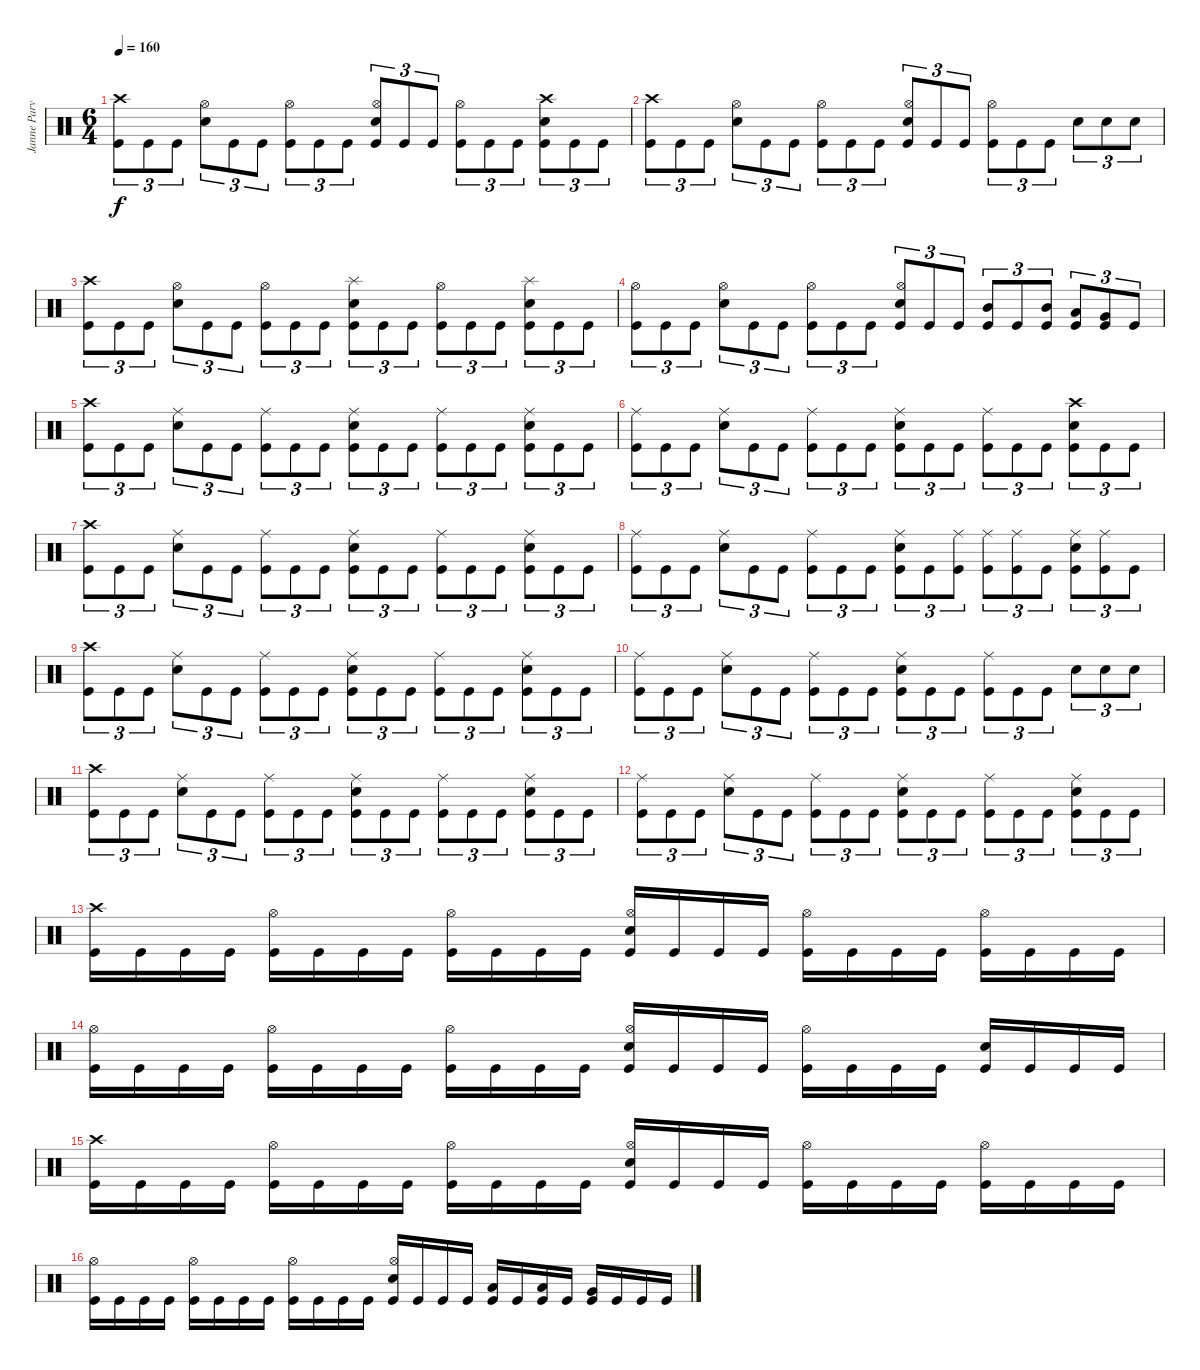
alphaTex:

\track ("Janne Parviainen" "Janne Parv") {instrument percussion}
\staff {score}
\articulation defaults
\ts (6 4)
\tempo 160
\clef neutral
\ks c
("Crash high (hit)" "Kick (hit)").8{tu (3 2) dy f} "Kick (hit)".8{tu (3 2)} "Kick (hit)".8{tu (3 2)} ("Hi-Hat (open)" "Electric Snare (hit)").8{tu (3 2)} "Kick (hit)".8{tu (3 2)} "Kick (hit)".8{tu (3 2)} ("Hi-Hat (open)" "Kick (hit)").8{tu (3 2)} "Kick (hit)".8{tu (3 2)} "Kick (hit)".8{tu (3 2)} ("Hi-Hat (open)" "Electric Snare (hit)" "Kick (hit)").8{tu (3 2)} "Kick (hit)".8{tu (3 2)} "Kick (hit)".8{tu (3 2)} ("Hi-Hat (open)" "Kick (hit)").8{tu (3 2)} "Kick (hit)".8{tu (3 2)} "Kick (hit)".8{tu (3 2)} ("Crash high (hit)" "Electric Snare (hit)" "Kick (hit)").8{tu (3 2)} "Kick (hit)".8{tu (3 2)} "Kick (hit)".8{tu (3 2)} |
("Crash high (hit)" "Kick (hit)").8{tu (3 2)} "Kick (hit)".8{tu (3 2)} "Kick (hit)".8{tu (3 2)} ("Hi-Hat (open)" "Electric Snare (hit)").8{tu (3 2)} "Kick (hit)".8{tu (3 2)} "Kick (hit)".8{tu (3 2)} ("Hi-Hat (open)" "Kick (hit)").8{tu (3 2)} "Kick (hit)".8{tu (3 2)} "Kick (hit)".8{tu (3 2)} ("Hi-Hat (open)" "Electric Snare (hit)" "Kick (hit)").8{tu (3 2)} "Kick (hit)".8{tu (3 2)} "Kick (hit)".8{tu (3 2)} ("Hi-Hat (open)" "Kick (hit)").8{tu (3 2)} "Kick (hit)".8{tu (3 2)} "Kick (hit)".8{tu (3 2)} "Electric Snare (hit)".8{tu (3 2)} "Electric Snare (hit)".8{tu (3 2)} "Electric Snare (hit)".8{tu (3 2)} |
("Crash high (hit)" "Kick (hit)").8{tu (3 2)} "Kick (hit)".8{tu (3 2)} "Kick (hit)".8{tu (3 2)} ("Hi-Hat (open)" "Electric Snare (hit)").8{tu (3 2)} "Kick (hit)".8{tu (3 2)} "Kick (hit)".8{tu (3 2)} ("Hi-Hat (open)" "Kick (hit)").8{tu (3 2)} "Kick (hit)".8{tu (3 2)} "Kick (hit)".8{tu (3 2)} ("Splash (hit)" "Electric Snare (hit)" "Kick (hit)").8{tu (3 2)} "Kick (hit)".8{tu (3 2)} "Kick (hit)".8{tu (3 2)} ("Hi-Hat (open)" "Kick (hit)").8{tu (3 2)} "Kick (hit)".8{tu (3 2)} "Kick (hit)".8{tu (3 2)} ("Splash (hit)" "Electric Snare (hit)" "Kick (hit)").8{tu (3 2)} "Kick (hit)".8{tu (3 2)} "Kick (hit)".8{tu (3 2)} |
("Hi-Hat (open)" "Kick (hit)").8{tu (3 2)} "Kick (hit)".8{tu (3 2)} "Kick (hit)".8{tu (3 2)} ("Hi-Hat (open)" "Electric Snare (hit)").8{tu (3 2)} "Kick (hit)".8{tu (3 2)} "Kick (hit)".8{tu (3 2)} ("Hi-Hat (open)" "Kick (hit)").8{tu (3 2)} "Kick (hit)".8{tu (3 2)} "Kick (hit)".8{tu (3 2)} ("Hi-Hat (open)" "Electric Snare (hit)" "Kick (hit)").8{tu (3 2)} "Kick (hit)".8{tu (3 2)} "Kick (hit)".8{tu (3 2)} ("Mid Tom (hit)" "Kick (hit)").8{tu (3 2)} "Kick (hit)".8{tu (3 2)} ("Mid Tom (hit)" "Kick (hit)").8{tu (3 2)} ("Low Tom (hit)" "Kick (hit)").8{tu (3 2)} ("Very Low Tom (hit)" "Kick (hit)").8{tu (3 2)} "Kick (hit)".8{tu (3 2)} |
("Crash high (hit)" "Kick (hit)").8{tu (3 2)} "Kick (hit)".8{tu (3 2)} "Kick (hit)".8{tu (3 2)} ("Ride (middle)" "Electric Snare (hit)").8{tu (3 2)} "Kick (hit)".8{tu (3 2)} "Kick (hit)".8{tu (3 2)} ("Ride (middle)" "Kick (hit)").8{tu (3 2)} "Kick (hit)".8{tu (3 2)} "Kick (hit)".8{tu (3 2)} ("Ride (middle)" "Electric Snare (hit)" "Kick (hit)").8{tu (3 2)} "Kick (hit)".8{tu (3 2)} "Kick (hit)".8{tu (3 2)} ("Ride (middle)" "Kick (hit)").8{tu (3 2)} "Kick (hit)".8{tu (3 2)} "Kick (hit)".8{tu (3 2)} ("Ride (middle)" "Electric Snare (hit)" "Kick (hit)").8{tu (3 2)} "Kick (hit)".8{tu (3 2)} "Kick (hit)".8{tu (3 2)} |
("Ride (middle)" "Kick (hit)").8{tu (3 2)} "Kick (hit)".8{tu (3 2)} "Kick (hit)".8{tu (3 2)} ("Ride (middle)" "Electric Snare (hit)").8{tu (3 2)} "Kick (hit)".8{tu (3 2)} "Kick (hit)".8{tu (3 2)} ("Ride (middle)" "Kick (hit)").8{tu (3 2)} "Kick (hit)".8{tu (3 2)} "Kick (hit)".8{tu (3 2)} ("Ride (middle)" "Electric Snare (hit)" "Kick (hit)").8{tu (3 2)} "Kick (hit)".8{tu (3 2)} "Kick (hit)".8{tu (3 2)} ("Ride (middle)" "Kick (hit)").8{tu (3 2)} "Kick (hit)".8{tu (3 2)} "Kick (hit)".8{tu (3 2)} ("Crash high (hit)" "Electric Snare (hit)" "Kick (hit)").8{tu (3 2)} "Kick (hit)".8{tu (3 2)} "Kick (hit)".8{tu (3 2)} |
("Crash high (hit)" "Kick (hit)").8{tu (3 2)} "Kick (hit)".8{tu (3 2)} "Kick (hit)".8{tu (3 2)} ("Ride (middle)" "Electric Snare (hit)").8{tu (3 2)} "Kick (hit)".8{tu (3 2)} "Kick (hit)".8{tu (3 2)} ("Ride (middle)" "Kick (hit)").8{tu (3 2)} "Kick (hit)".8{tu (3 2)} "Kick (hit)".8{tu (3 2)} ("Ride (middle)" "Electric Snare (hit)" "Kick (hit)").8{tu (3 2)} "Kick (hit)".8{tu (3 2)} "Kick (hit)".8{tu (3 2)} ("Ride (middle)" "Kick (hit)").8{tu (3 2)} "Kick (hit)".8{tu (3 2)} "Kick (hit)".8{tu (3 2)} ("Ride (middle)" "Electric Snare (hit)" "Kick (hit)").8{tu (3 2)} "Kick (hit)".8{tu (3 2)} "Kick (hit)".8{tu (3 2)} |
("Ride (middle)" "Kick (hit)").8{tu (3 2)} "Kick (hit)".8{tu (3 2)} "Kick (hit)".8{tu (3 2)} ("Ride (middle)" "Electric Snare (hit)").8{tu (3 2)} "Kick (hit)".8{tu (3 2)} "Kick (hit)".8{tu (3 2)} ("Ride (middle)" "Kick (hit)").8{tu (3 2)} "Kick (hit)".8{tu (3 2)} "Kick (hit)".8{tu (3 2)} ("Ride (middle)" "Electric Snare (hit)" "Kick (hit)").8{tu (3 2)} "Kick (hit)".8{tu (3 2)} ("Ride (middle)" "Kick (hit)").8{tu (3 2)} ("Ride (middle)" "Kick (hit)").8{tu (3 2)} ("Ride (middle)" "Kick (hit)").8{tu (3 2)} "Kick (hit)".8{tu (3 2)} ("Ride (middle)" "Electric Snare (hit)" "Kick (hit)").8{tu (3 2)} ("Ride (middle)" "Kick (hit)").8{tu (3 2)} "Kick (hit)".8{tu (3 2)} |
("Crash high (hit)" "Kick (hit)").8{tu (3 2)} "Kick (hit)".8{tu (3 2)} "Kick (hit)".8{tu (3 2)} ("Ride (middle)" "Electric Snare (hit)").8{tu (3 2)} "Kick (hit)".8{tu (3 2)} "Kick (hit)".8{tu (3 2)} ("Ride (middle)" "Kick (hit)").8{tu (3 2)} "Kick (hit)".8{tu (3 2)} "Kick (hit)".8{tu (3 2)} ("Ride (middle)" "Electric Snare (hit)" "Kick (hit)").8{tu (3 2)} "Kick (hit)".8{tu (3 2)} "Kick (hit)".8{tu (3 2)} ("Ride (middle)" "Kick (hit)").8{tu (3 2)} "Kick (hit)".8{tu (3 2)} "Kick (hit)".8{tu (3 2)} ("Ride (middle)" "Electric Snare (hit)" "Kick (hit)").8{tu (3 2)} "Kick (hit)".8{tu (3 2)} "Kick (hit)".8{tu (3 2)} |
("Ride (middle)" "Kick (hit)").8{tu (3 2)} "Kick (hit)".8{tu (3 2)} "Kick (hit)".8{tu (3 2)} ("Ride (middle)" "Electric Snare (hit)").8{tu (3 2)} "Kick (hit)".8{tu (3 2)} "Kick (hit)".8{tu (3 2)} ("Ride (middle)" "Kick (hit)").8{tu (3 2)} "Kick (hit)".8{tu (3 2)} "Kick (hit)".8{tu (3 2)} ("Ride (middle)" "Electric Snare (hit)" "Kick (hit)").8{tu (3 2)} "Kick (hit)".8{tu (3 2)} "Kick (hit)".8{tu (3 2)} ("Ride (middle)" "Kick (hit)").8{tu (3 2)} "Kick (hit)".8{tu (3 2)} "Kick (hit)".8{tu (3 2)} "Electric Snare (hit)".8{tu (3 2)} "Electric Snare (hit)".8{tu (3 2)} "Electric Snare (hit)".8{tu (3 2)} |
("Crash high (hit)" "Kick (hit)").8{tu (3 2)} "Kick (hit)".8{tu (3 2)} "Kick (hit)".8{tu (3 2)} ("Ride (middle)" "Electric Snare (hit)").8{tu (3 2)} "Kick (hit)".8{tu (3 2)} "Kick (hit)".8{tu (3 2)} ("Ride (middle)" "Kick (hit)").8{tu (3 2)} "Kick (hit)".8{tu (3 2)} "Kick (hit)".8{tu (3 2)} ("Ride (middle)" "Electric Snare (hit)" "Kick (hit)").8{tu (3 2)} "Kick (hit)".8{tu (3 2)} "Kick (hit)".8{tu (3 2)} ("Ride (middle)" "Kick (hit)").8{tu (3 2)} "Kick (hit)".8{tu (3 2)} "Kick (hit)".8{tu (3 2)} ("Ride (middle)" "Electric Snare (hit)" "Kick (hit)").8{tu (3 2)} "Kick (hit)".8{tu (3 2)} "Kick (hit)".8{tu (3 2)} |
("Ride (middle)" "Kick (hit)").8{tu (3 2)} "Kick (hit)".8{tu (3 2)} "Kick (hit)".8{tu (3 2)} ("Ride (middle)" "Electric Snare (hit)").8{tu (3 2)} "Kick (hit)".8{tu (3 2)} "Kick (hit)".8{tu (3 2)} ("Ride (middle)" "Kick (hit)").8{tu (3 2)} "Kick (hit)".8{tu (3 2)} "Kick (hit)".8{tu (3 2)} ("Ride (middle)" "Electric Snare (hit)" "Kick (hit)").8{tu (3 2)} "Kick (hit)".8{tu (3 2)} "Kick (hit)".8{tu (3 2)} ("Ride (middle)" "Kick (hit)").8{tu (3 2)} "Kick (hit)".8{tu (3 2)} "Kick (hit)".8{tu (3 2)} ("Ride (middle)" "Electric Snare (hit)" "Kick (hit)").8{tu (3 2)} "Kick (hit)".8{tu (3 2)} "Kick (hit)".8{tu (3 2)} |
("Crash high (hit)" "Kick (hit)").16 "Kick (hit)".16 "Kick (hit)".16 "Kick (hit)".16 ("Hi-Hat (open)" "Kick (hit)").16 "Kick (hit)".16 "Kick (hit)".16 "Kick (hit)".16 ("Hi-Hat (open)" "Kick (hit)").16 "Kick (hit)".16 "Kick (hit)".16 "Kick (hit)".16 ("Hi-Hat (open)" "Electric Snare (hit)" "Kick (hit)").16 "Kick (hit)".16 "Kick (hit)".16 "Kick (hit)".16 ("Hi-Hat (open)" "Kick (hit)").16 "Kick (hit)".16 "Kick (hit)".16 "Kick (hit)".16 ("Hi-Hat (open)" "Kick (hit)").16 "Kick (hit)".16 "Kick (hit)".16 "Kick (hit)".16 |
("Hi-Hat (open)" "Kick (hit)").16 "Kick (hit)".16 "Kick (hit)".16 "Kick (hit)".16 ("Hi-Hat (open)" "Kick (hit)").16 "Kick (hit)".16 "Kick (hit)".16 "Kick (hit)".16 ("Hi-Hat (open)" "Kick (hit)").16 "Kick (hit)".16 "Kick (hit)".16 "Kick (hit)".16 ("Hi-Hat (open)" "Electric Snare (hit)" "Kick (hit)").16 "Kick (hit)".16 "Kick (hit)".16 "Kick (hit)".16 ("Hi-Hat (open)" "Kick (hit)").16 "Kick (hit)".16 "Kick (hit)".16 "Kick (hit)".16 ("Electric Snare (hit)" "Kick (hit)").16 "Kick (hit)".16 "Kick (hit)".16 "Kick (hit)".16 |
("Crash high (hit)" "Kick (hit)").16 "Kick (hit)".16 "Kick (hit)".16 "Kick (hit)".16 ("Hi-Hat (open)" "Kick (hit)").16 "Kick (hit)".16 "Kick (hit)".16 "Kick (hit)".16 ("Hi-Hat (open)" "Kick (hit)").16 "Kick (hit)".16 "Kick (hit)".16 "Kick (hit)".16 ("Hi-Hat (open)" "Electric Snare (hit)" "Kick (hit)").16 "Kick (hit)".16 "Kick (hit)".16 "Kick (hit)".16 ("Hi-Hat (open)" "Kick (hit)").16 "Kick (hit)".16 "Kick (hit)".16 "Kick (hit)".16 ("Hi-Hat (open)" "Kick (hit)").16 "Kick (hit)".16 "Kick (hit)".16 "Kick (hit)".16 |
("Hi-Hat (open)" "Kick (hit)").16 "Kick (hit)".16 "Kick (hit)".16 "Kick (hit)".16 ("Hi-Hat (open)" "Kick (hit)").16 "Kick (hit)".16 "Kick (hit)".16 "Kick (hit)".16 ("Hi-Hat (open)" "Kick (hit)").16 "Kick (hit)".16 "Kick (hit)".16 "Kick (hit)".16 ("Hi-Hat (open)" "Electric Snare (hit)" "Kick (hit)").16 "Kick (hit)".16 "Kick (hit)".16 "Kick (hit)".16 ("Low Tom (hit)" "Kick (hit)").16 "Kick (hit)".16 ("Low Tom (hit)" "Kick (hit)").16 "Kick (hit)".16 ("Very Low Tom (hit)" "Kick (hit)").16 "Kick (hit)".16 "Kick (hit)".16 "Kick (hit)".16
